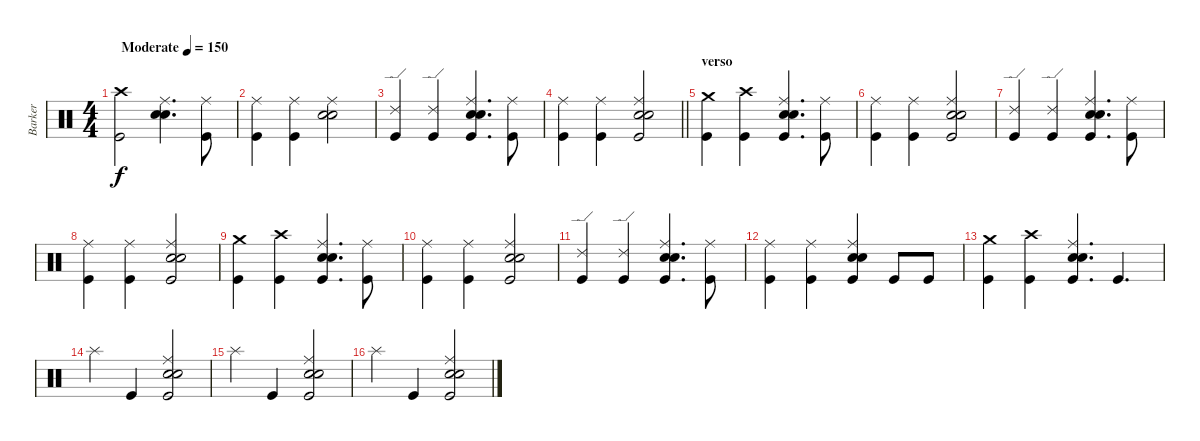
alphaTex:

\track ("Barker" "Barker") {instrument percussion}
\staff {score}
\articulation defaults
\ts (4 4)
\tempo (150 "Moderate")
\clef neutral
\ks c
("Kick (hit)" "Crash high (hit)").2{dy f} ("Ride (middle)" "Hand Clap (hit)" "Electric Snare (hit)").4{d} ("Ride (middle)" "Kick (hit)").8 |
("Ride (middle)" "Kick (hit)").4 ("Ride (middle)" "Kick (hit)").4 ("Ride (middle)" "Hand Clap (hit)" "Electric Snare (hit)").2 |
("Ride (edge) 2" "Kick (hit)").4 ("Ride (edge) 2" "Kick (hit)").4 ("Ride (middle)" "Hand Clap (hit)" "Electric Snare (hit)" "Kick (hit)").4{d} ("Ride (middle)" "Kick (hit)").8 |
\barLineRight lightlight
("Kick (hit)" "Ride (middle)").4 ("Kick (hit)" "Ride (middle)").4 ("Ride (middle)" "Hand Clap (hit)" "Electric Snare (hit)" "Kick (hit)").2 |
\section ("" "verso")
("Crash medium (hit)" "Kick (hit)").4 ("Crash high (hit)" "Kick (hit)").4 ("Ride (middle)" "Hand Clap (hit)" "Electric Snare (hit)" "Kick (hit)").4{d} ("Ride (middle)" "Kick (hit)").8 |
("Kick (hit)" "Ride (middle)").4 ("Kick (hit)" "Ride (middle)").4 ("Ride (middle)" "Hand Clap (hit)" "Electric Snare (hit)" "Kick (hit)").2 |
("Ride (edge) 2" "Kick (hit)").4 ("Ride (edge) 2" "Kick (hit)").4 ("Ride (middle)" "Hand Clap (hit)" "Electric Snare (hit)" "Kick (hit)").4{d} ("Ride (middle)" "Kick (hit)").8 |
("Kick (hit)" "Ride (middle)").4 ("Kick (hit)" "Ride (middle)").4 ("Ride (middle)" "Hand Clap (hit)" "Electric Snare (hit)" "Kick (hit)").2 |
("Crash medium (hit)" "Kick (hit)").4 ("Crash high (hit)" "Kick (hit)").4 ("Ride (middle)" "Hand Clap (hit)" "Electric Snare (hit)" "Kick (hit)").4{d} ("Ride (middle)" "Kick (hit)").8 |
("Kick (hit)" "Ride (middle)").4 ("Kick (hit)" "Ride (middle)").4 ("Ride (middle)" "Hand Clap (hit)" "Electric Snare (hit)" "Kick (hit)").2 |
("Ride (edge) 2" "Kick (hit)").4 ("Ride (edge) 2" "Kick (hit)").4 ("Ride (middle)" "Hand Clap (hit)" "Electric Snare (hit)" "Kick (hit)").4{d} ("Ride (middle)" "Kick (hit)").8 |
("Kick (hit)" "Ride (middle)").4 ("Kick (hit)" "Ride (middle)").4 ("Ride (middle)" "Hand Clap (hit)" "Electric Snare (hit)" "Kick (hit)").4 "Kick (hit)".8 "Kick (hit)".8 |
("Crash medium (hit)" "Kick (hit)").4 ("Crash high (hit)" "Kick (hit)").4 ("Ride (middle)" "Hand Clap (hit)" "Electric Snare (hit)" "Kick (hit)").4{d} "Kick (hit)".4{d} |
"Splash (hit)".4 "Kick (hit)".4 ("Ride (middle)" "Hand Clap (hit)" "Electric Snare (hit)" "Kick (hit)").2 |
"Splash (hit)".4 "Kick (hit)".4 ("Ride (middle)" "Hand Clap (hit)" "Electric Snare (hit)" "Kick (hit)").2 |
"Splash (hit)".4 "Kick (hit)".4 ("Ride (middle)" "Hand Clap (hit)" "Electric Snare (hit)" "Kick (hit)").2
